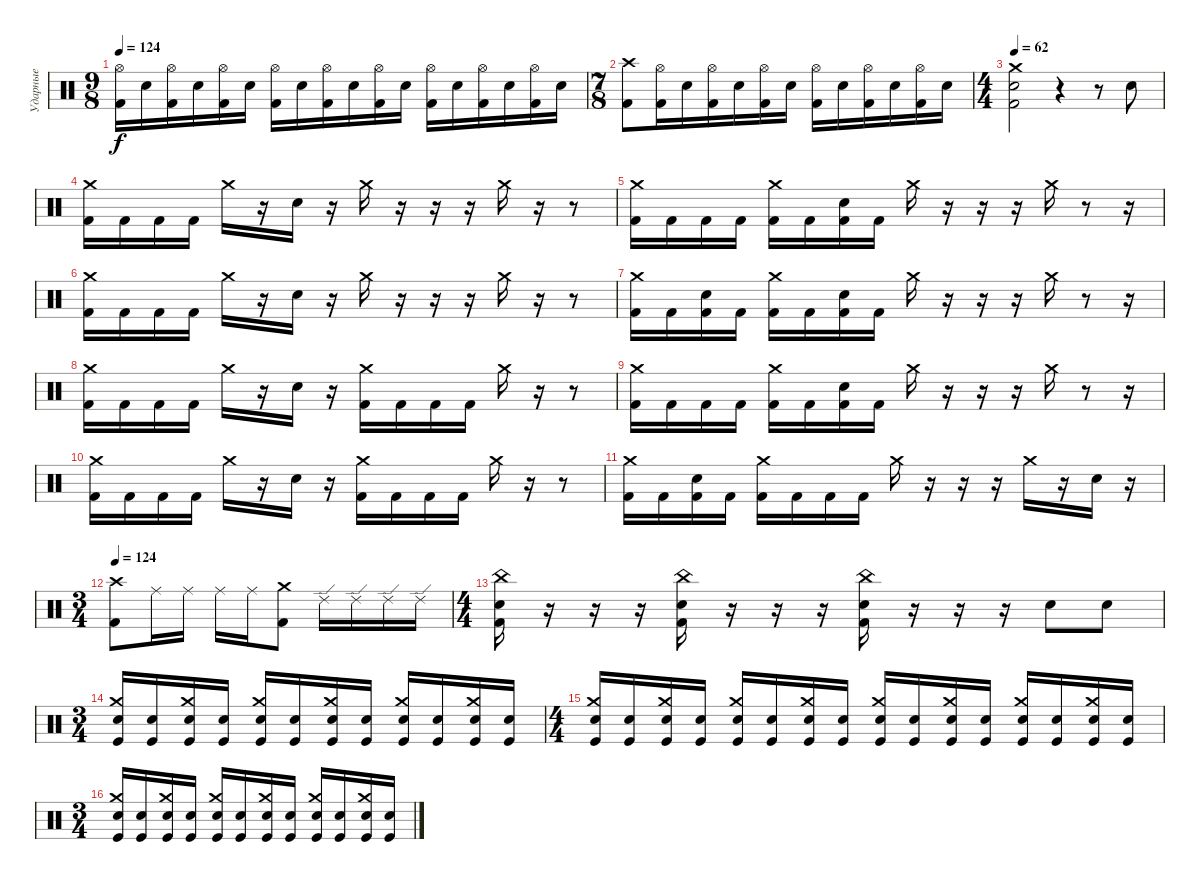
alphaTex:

\track ("Ударные" "Ударные") {instrument percussion}
\staff {score}
\articulation defaults
\ts (9 8)
\tempo 124
\clef neutral
\ks c
("Hi-Hat (open)" "Kick (hit) 2").16{dy f} "Electric Snare (hit)".16 ("Hi-Hat (open)" "Kick (hit) 2").16 "Electric Snare (hit)".16 ("Hi-Hat (open)" "Kick (hit) 2").16 "Electric Snare (hit)".16 ("Hi-Hat (open)" "Kick (hit) 2").16 "Electric Snare (hit)".16 ("Hi-Hat (open)" "Kick (hit) 2").16 "Electric Snare (hit)".16 ("Hi-Hat (open)" "Kick (hit) 2").16 "Electric Snare (hit)".16 ("Hi-Hat (open)" "Kick (hit) 2").16 "Electric Snare (hit)".16 ("Hi-Hat (open)" "Kick (hit) 2").16 "Electric Snare (hit)".16 ("Hi-Hat (open)" "Kick (hit) 2").16 "Electric Snare (hit)".16 |
\ts (7 8)
("Crash high (hit)" "Kick (hit) 2").8 ("Hi-Hat (open)" "Kick (hit) 2").16 "Electric Snare (hit)".16 ("Hi-Hat (open)" "Kick (hit) 2").16 "Electric Snare (hit)".16 ("Hi-Hat (open)" "Kick (hit) 2").16 "Electric Snare (hit)".16 ("Hi-Hat (open)" "Kick (hit) 2").16 "Electric Snare (hit)".16 ("Hi-Hat (open)" "Kick (hit) 2").16 "Electric Snare (hit)".16 ("Hi-Hat (open)" "Kick (hit) 2").16 "Electric Snare (hit)".16 |
\ts (4 4)
\tempo 62
("Crash medium (hit)" "Electric Snare (hit)" "Kick (hit) 2").2 r.4 r.8 "Electric Snare (hit)".8 |
("Crash medium (hit)" "Kick (hit) 2").16 "Kick (hit) 2".16 "Kick (hit) 2".16 "Kick (hit) 2".16 "Crash medium (hit)".16 r.16 "Electric Snare (hit)".16 r.16 "Crash medium (hit)".16 r.16 r.16 r.16 "Crash medium (hit)".16 r.16 r.8 |
("Crash medium (hit)" "Kick (hit) 2").16 "Kick (hit) 2".16 "Kick (hit) 2".16 "Kick (hit) 2".16 ("Crash medium (hit)" "Kick (hit) 2").16 "Kick (hit) 2".16 ("Electric Snare (hit)" "Kick (hit) 2").16 "Kick (hit) 2".16 "Crash medium (hit)".16 r.16 r.16 r.16 "Crash medium (hit)".16 r.8 r.16 |
("Crash medium (hit)" "Kick (hit) 2").16 "Kick (hit) 2".16 "Kick (hit) 2".16 "Kick (hit) 2".16 "Crash medium (hit)".16 r.16 "Electric Snare (hit)".16 r.16 "Crash medium (hit)".16 r.16 r.16 r.16 "Crash medium (hit)".16 r.16 r.8 |
("Crash medium (hit)" "Kick (hit) 2").16 "Kick (hit) 2".16 ("Electric Snare (hit)" "Kick (hit) 2").16 "Kick (hit) 2".16 ("Crash medium (hit)" "Kick (hit) 2").16 "Kick (hit) 2".16 ("Electric Snare (hit)" "Kick (hit) 2").16 "Kick (hit) 2".16 "Crash medium (hit)".16 r.16 r.16 r.16 "Crash medium (hit)".16 r.8 r.16 |
("Crash medium (hit)" "Kick (hit) 2").16 "Kick (hit) 2".16 "Kick (hit) 2".16 "Kick (hit) 2".16 "Crash medium (hit)".16 r.16 "Electric Snare (hit)".16 r.16 ("Crash medium (hit)" "Kick (hit) 2").16 "Kick (hit) 2".16 "Kick (hit) 2".16 "Kick (hit) 2".16 "Crash medium (hit)".16 r.16 r.8 |
("Crash medium (hit)" "Kick (hit) 2").16 "Kick (hit) 2".16 "Kick (hit) 2".16 "Kick (hit) 2".16 ("Crash medium (hit)" "Kick (hit) 2").16 "Kick (hit) 2".16 ("Electric Snare (hit)" "Kick (hit) 2").16 "Kick (hit) 2".16 "Crash medium (hit)".16 r.16 r.16 r.16 "Crash medium (hit)".16 r.8 r.16 |
("Crash medium (hit)" "Kick (hit) 2").16 "Kick (hit) 2".16 "Kick (hit) 2".16 "Kick (hit) 2".16 "Crash medium (hit)".16 r.16 "Electric Snare (hit)".16 r.16 ("Crash medium (hit)" "Kick (hit) 2").16 "Kick (hit) 2".16 "Kick (hit) 2".16 "Kick (hit) 2".16 "Crash medium (hit)".16 r.16 r.8 |
("Crash medium (hit)" "Kick (hit) 2").16 "Kick (hit) 2".16 ("Electric Snare (hit)" "Kick (hit) 2").16 "Kick (hit) 2".16 ("Crash medium (hit)" "Kick (hit) 2").16 "Kick (hit) 2".16 "Kick (hit) 2".16 "Kick (hit) 2".16 "Crash medium (hit)".16 r.16 r.16 r.16 "Crash medium (hit)".16 r.16 "Electric Snare (hit)".16 r.16 |
\ts (3 4)
\tempo 124
("Crash high (hit)" "Kick (hit) 2").8 "Ride (middle)".16 "Ride (middle)".16 "Ride (middle)".16 "Ride (middle)".16 ("Crash medium (hit)" "Kick (hit) 2").8 "Ride (edge) 2".16 "Ride (edge) 2".16 "Ride (edge) 2".16 "Ride (edge) 2".16 |
\ts (4 4)
("China (hit)" "Electric Snare (hit)" "Kick (hit) 2").16 r.16 r.16 r.16 ("China (hit)" "Electric Snare (hit)" "Kick (hit) 2").16 r.16 r.16 r.16 ("China (hit)" "Electric Snare (hit)" "Kick (hit) 2").16 r.16 r.16 r.16 "Electric Snare (hit)".8 "Electric Snare (hit)".8 |
\ts (3 4)
("Crash medium (hit)" "Electric Snare (hit)" "Kick (hit)").16 ("Electric Snare (hit)" "Kick (hit)").16 ("Crash medium (hit)" "Electric Snare (hit)" "Kick (hit)").16 ("Electric Snare (hit)" "Kick (hit)").16 ("Crash medium (hit)" "Electric Snare (hit)" "Kick (hit)").16 ("Electric Snare (hit)" "Kick (hit)").16 ("Crash medium (hit)" "Electric Snare (hit)" "Kick (hit)").16 ("Electric Snare (hit)" "Kick (hit)").16 ("Crash medium (hit)" "Electric Snare (hit)" "Kick (hit)").16 ("Electric Snare (hit)" "Kick (hit)").16 ("Crash medium (hit)" "Electric Snare (hit)" "Kick (hit)").16 ("Electric Snare (hit)" "Kick (hit)").16 |
\ts (4 4)
("Crash medium (hit)" "Electric Snare (hit)" "Kick (hit)").16 ("Electric Snare (hit)" "Kick (hit)").16 ("Crash medium (hit)" "Electric Snare (hit)" "Kick (hit)").16 ("Electric Snare (hit)" "Kick (hit)").16 ("Crash medium (hit)" "Electric Snare (hit)" "Kick (hit)").16 ("Electric Snare (hit)" "Kick (hit)").16 ("Crash medium (hit)" "Electric Snare (hit)" "Kick (hit)").16 ("Electric Snare (hit)" "Kick (hit)").16 ("Crash medium (hit)" "Electric Snare (hit)" "Kick (hit)").16 ("Electric Snare (hit)" "Kick (hit)").16 ("Crash medium (hit)" "Electric Snare (hit)" "Kick (hit)").16 ("Electric Snare (hit)" "Kick (hit)").16 ("Crash medium (hit)" "Electric Snare (hit)" "Kick (hit)").16 ("Electric Snare (hit)" "Kick (hit)").16 ("Crash medium (hit)" "Electric Snare (hit)" "Kick (hit)").16 ("Electric Snare (hit)" "Kick (hit)").16 |
\ts (3 4)
("Crash medium (hit)" "Electric Snare (hit)" "Kick (hit)").16 ("Electric Snare (hit)" "Kick (hit)").16 ("Crash medium (hit)" "Electric Snare (hit)" "Kick (hit)").16 ("Electric Snare (hit)" "Kick (hit)").16 ("Crash medium (hit)" "Electric Snare (hit)" "Kick (hit)").16 ("Electric Snare (hit)" "Kick (hit)").16 ("Crash medium (hit)" "Electric Snare (hit)" "Kick (hit)").16 ("Electric Snare (hit)" "Kick (hit)").16 ("Crash medium (hit)" "Electric Snare (hit)" "Kick (hit)").16 ("Electric Snare (hit)" "Kick (hit)").16 ("Crash medium (hit)" "Electric Snare (hit)" "Kick (hit)").16 ("Electric Snare (hit)" "Kick (hit)").16
